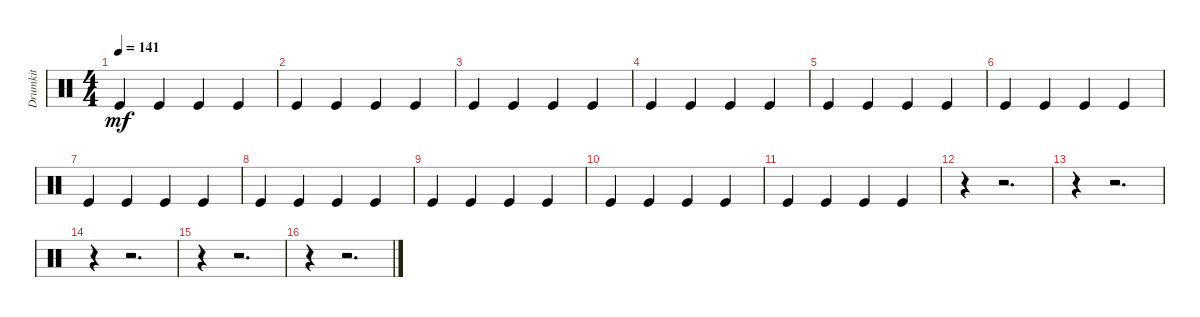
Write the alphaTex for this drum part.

\track ("Drumkit" "Drumkit") {instrument percussion}
\staff {score}
\articulation defaults
\ts (4 4)
\tempo 141
\clef neutral
\ks c "Kick (hit)".4{dy mf} "Kick (hit)".4 "Kick (hit)".4 "Kick (hit)".4
|
"Kick (hit)".4 "Kick (hit)".4 "Kick (hit)".4 "Kick (hit)".4 |
"Kick (hit)".4 "Kick (hit)".4 "Kick (hit)".4 "Kick (hit)".4 |
"Kick (hit)".4 "Kick (hit)".4 "Kick (hit)".4 "Kick (hit)".4 |
"Kick (hit)".4 "Kick (hit)".4 "Kick (hit)".4 "Kick (hit)".4 |
"Kick (hit)".4 "Kick (hit)".4 "Kick (hit)".4 "Kick (hit)".4 |
"Kick (hit)".4 "Kick (hit)".4 "Kick (hit)".4 "Kick (hit)".4 |
"Kick (hit)".4 "Kick (hit)".4 "Kick (hit)".4 "Kick (hit)".4 |
"Kick (hit)".4 "Kick (hit)".4 "Kick (hit)".4 "Kick (hit)".4 |
"Kick (hit)".4 "Kick (hit)".4 "Kick (hit)".4 "Kick (hit)".4 |
"Kick (hit)".4 "Kick (hit)".4 "Kick (hit)".4 "Kick (hit)".4 |
r.4 r.2{d} |
r.4 r.2{d} |
r.4 r.2{d} |
r.4 r.2{d} |
r.4 r.2{d}
